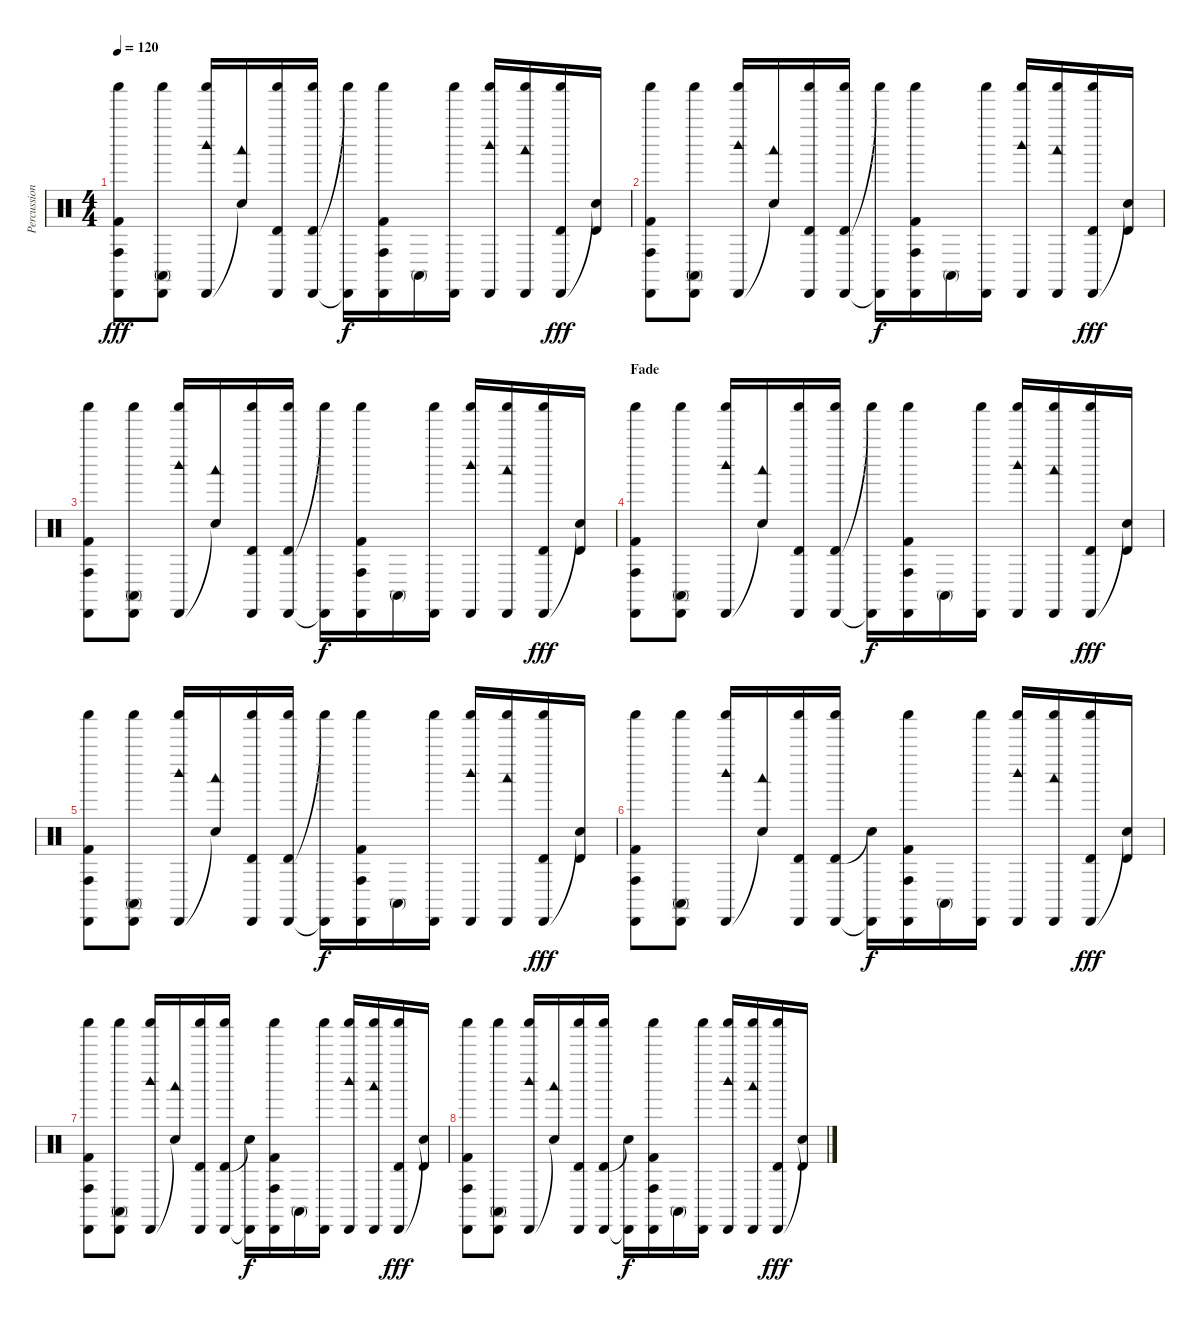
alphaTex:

\track ("Percussion" "Percussion") {instrument percussion}
\staff {score}
\articulation defaults
\ts (4 4)
\tempo 120
\clef neutral
\ks c
("Cabasa (hit)" "Conga high (hit)" "Kick (hit) 2" "Shaker (hit)").8{dy fff} ("Cabasa (hit)" "Conga high (mute)" "Shaker (hit)").8 ("Cabasa (hit)" "Woodblock high (hit)" "Shaker (hit)").16 ("Snare (hit)"{t} "Woodblock low (hit)").16 ("Cabasa (hit)" "Timbale high (hit)" "Shaker (hit)").16 ("Cabasa (hit)" "Timbale high (hit)" "Shaker (hit)").16 ("Cabasa (hit)"{t} "Shaker (hit)"{t}).16{dy f} ("Cabasa (hit)" "Conga high (hit)" "Kick (hit) 2" "Shaker (hit)").16 "Conga high (mute)".16 ("Cabasa (hit)" "Shaker (hit)").16 ("Cabasa (hit)" "Woodblock high (hit)" "Shaker (hit)").16 ("Cabasa (hit)" "Woodblock low (hit)" "Shaker (hit)").16 ("Cabasa (hit)" "Timbale high (hit)" "Shaker (hit)").16{dy fff} ("Snare (hit)"{t} "Timbale high (hit)").16 |
("Cabasa (hit)" "Conga high (hit)" "Kick (hit) 2" "Shaker (hit)").8 ("Cabasa (hit)" "Conga high (mute)" "Shaker (hit)").8 ("Cabasa (hit)" "Woodblock high (hit)" "Shaker (hit)").16 ("Snare (hit)"{t} "Woodblock low (hit)").16 ("Cabasa (hit)" "Timbale high (hit)" "Shaker (hit)").16 ("Cabasa (hit)" "Timbale high (hit)" "Shaker (hit)").16 ("Cabasa (hit)"{t} "Shaker (hit)"{t}).16{dy f} ("Cabasa (hit)" "Conga high (hit)" "Kick (hit) 2" "Shaker (hit)").16 "Conga high (mute)".16 ("Cabasa (hit)" "Shaker (hit)").16 ("Cabasa (hit)" "Woodblock high (hit)" "Shaker (hit)").16 ("Cabasa (hit)" "Woodblock low (hit)" "Shaker (hit)").16 ("Cabasa (hit)" "Timbale high (hit)" "Shaker (hit)").16{dy fff} ("Snare (hit)"{t} "Timbale high (hit)").16 |
("Cabasa (hit)" "Conga high (hit)" "Kick (hit) 2" "Shaker (hit)").8 ("Cabasa (hit)" "Conga high (mute)" "Shaker (hit)").8 ("Cabasa (hit)" "Woodblock high (hit)" "Shaker (hit)").16 ("Snare (hit)"{t} "Woodblock low (hit)").16 ("Cabasa (hit)" "Timbale high (hit)" "Shaker (hit)").16 ("Cabasa (hit)" "Timbale high (hit)" "Shaker (hit)").16 ("Cabasa (hit)"{t} "Shaker (hit)"{t}).16{dy f} ("Cabasa (hit)" "Conga high (hit)" "Kick (hit) 2" "Shaker (hit)").16 "Conga high (mute)".16 ("Cabasa (hit)" "Shaker (hit)").16 ("Cabasa (hit)" "Woodblock high (hit)" "Shaker (hit)").16 ("Cabasa (hit)" "Woodblock low (hit)" "Shaker (hit)").16 ("Cabasa (hit)" "Timbale high (hit)" "Shaker (hit)").16{dy fff} ("Snare (hit)"{t} "Timbale high (hit)").16 |
\section ("" "Fade")
("Cabasa (hit)" "Conga high (hit)" "Kick (hit) 2" "Shaker (hit)").8{volume 10} ("Cabasa (hit)" "Conga high (mute)" "Shaker (hit)").8 ("Cabasa (hit)" "Woodblock high (hit)" "Shaker (hit)").16 ("Snare (hit)"{t} "Woodblock low (hit)").16 ("Cabasa (hit)" "Timbale high (hit)" "Shaker (hit)").16 ("Cabasa (hit)" "Timbale high (hit)" "Shaker (hit)").16 ("Cabasa (hit)"{t} "Shaker (hit)"{t}).16{dy f} ("Cabasa (hit)" "Conga high (hit)" "Kick (hit) 2" "Shaker (hit)").16 "Conga high (mute)".16 ("Cabasa (hit)" "Shaker (hit)").16 ("Cabasa (hit)" "Woodblock high (hit)" "Shaker (hit)").16 ("Cabasa (hit)" "Woodblock low (hit)" "Shaker (hit)").16 ("Cabasa (hit)" "Timbale high (hit)" "Shaker (hit)").16{dy fff} ("Snare (hit)"{t} "Timbale high (hit)").16 |
("Cabasa (hit)" "Conga high (hit)" "Kick (hit) 2" "Shaker (hit)").8 ("Cabasa (hit)" "Conga high (mute)" "Shaker (hit)").8 ("Cabasa (hit)" "Woodblock high (hit)" "Shaker (hit)").16 ("Snare (hit)"{t} "Woodblock low (hit)").16 ("Cabasa (hit)" "Timbale high (hit)" "Shaker (hit)").16 ("Cabasa (hit)" "Timbale high (hit)" "Shaker (hit)").16 ("Cabasa (hit)"{t} "Shaker (hit)"{t}).16{dy f} ("Cabasa (hit)" "Conga high (hit)" "Kick (hit) 2" "Shaker (hit)").16 "Conga high (mute)".16 ("Cabasa (hit)" "Shaker (hit)").16 ("Cabasa (hit)" "Woodblock high (hit)" "Shaker (hit)").16 ("Cabasa (hit)" "Woodblock low (hit)" "Shaker (hit)").16 ("Cabasa (hit)" "Timbale high (hit)" "Shaker (hit)").16{dy fff} ("Snare (hit)"{t} "Timbale high (hit)").16 |
("Cabasa (hit)" "Conga high (hit)" "Kick (hit) 2" "Shaker (hit)").8{volume 7} ("Cabasa (hit)" "Conga high (mute)" "Shaker (hit)").8 ("Cabasa (hit)" "Woodblock high (hit)" "Shaker (hit)").16 ("Snare (hit)"{t} "Woodblock low (hit)").16 ("Cabasa (hit)" "Timbale high (hit)" "Shaker (hit)").16 ("Cabasa (hit)" "Timbale high (hit)" "Shaker (hit)").16 ("Cabasa (hit)"{t} "Snare (hit)"{t}).16{dy f} ("Cabasa (hit)" "Conga high (hit)" "Kick (hit) 2" "Shaker (hit)").16 "Conga high (mute)".16 ("Cabasa (hit)" "Shaker (hit)").16 ("Cabasa (hit)" "Woodblock high (hit)" "Shaker (hit)").16 ("Cabasa (hit)" "Woodblock low (hit)" "Shaker (hit)").16 ("Cabasa (hit)" "Timbale high (hit)" "Shaker (hit)").16{dy fff} ("Snare (hit)"{t} "Timbale high (hit)").16 |
("Cabasa (hit)" "Conga high (hit)" "Kick (hit) 2" "Shaker (hit)").8 ("Cabasa (hit)" "Conga high (mute)" "Shaker (hit)").8 ("Cabasa (hit)" "Woodblock high (hit)" "Shaker (hit)").16 ("Snare (hit)"{t} "Woodblock low (hit)").16 ("Cabasa (hit)" "Timbale high (hit)" "Shaker (hit)").16 ("Cabasa (hit)" "Timbale high (hit)" "Shaker (hit)").16 ("Cabasa (hit)"{t} "Snare (hit)"{t}).16{dy f} ("Cabasa (hit)" "Conga high (hit)" "Kick (hit) 2" "Shaker (hit)").16 "Conga high (mute)".16 ("Cabasa (hit)" "Shaker (hit)").16 ("Cabasa (hit)" "Woodblock high (hit)" "Shaker (hit)").16 ("Cabasa (hit)" "Woodblock low (hit)" "Shaker (hit)").16 ("Cabasa (hit)" "Timbale high (hit)" "Shaker (hit)").16{dy fff} ("Snare (hit)"{t} "Timbale high (hit)").16 |
("Cabasa (hit)" "Conga high (hit)" "Kick (hit) 2" "Shaker (hit)").8{volume 3} ("Cabasa (hit)" "Conga high (mute)" "Shaker (hit)").8 ("Cabasa (hit)" "Woodblock high (hit)" "Shaker (hit)").16 ("Snare (hit)"{t} "Woodblock low (hit)").16 ("Cabasa (hit)" "Timbale high (hit)" "Shaker (hit)").16 ("Cabasa (hit)" "Timbale high (hit)" "Shaker (hit)").16 ("Cabasa (hit)"{t} "Snare (hit)"{t}).16{dy f} ("Cabasa (hit)" "Conga high (hit)" "Kick (hit) 2" "Shaker (hit)").16 "Conga high (mute)".16 ("Cabasa (hit)" "Shaker (hit)").16 ("Cabasa (hit)" "Woodblock high (hit)" "Shaker (hit)").16 ("Cabasa (hit)" "Woodblock low (hit)" "Shaker (hit)").16 ("Cabasa (hit)" "Timbale high (hit)" "Shaker (hit)").16{dy fff} ("Snare (hit)"{t} "Timbale high (hit)").16
